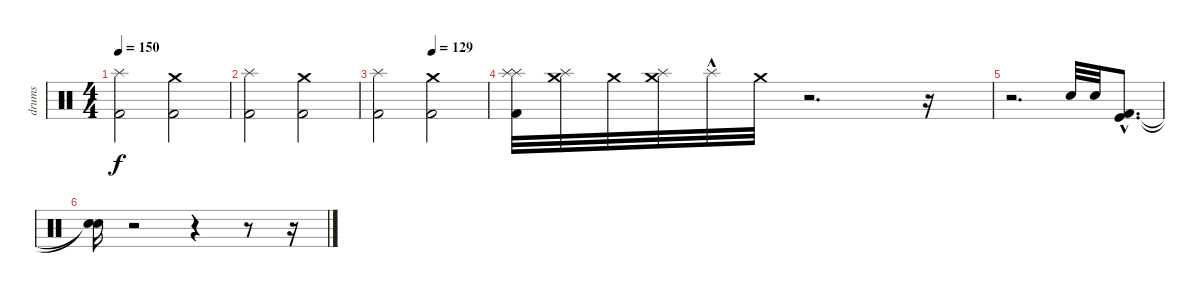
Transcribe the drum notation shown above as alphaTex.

\track ("drums" "drums") {instrument percussion}
\staff {score}
\articulation defaults
\ts (4 4)
\tempo 150
\clef neutral
\ks c
("Kick (hit) 2" "Splash (hit)").2{dy f} ("Kick (hit) 2" "Crash medium (hit)").2 |
("Kick (hit) 2" "Splash (hit)").2 ("Kick (hit) 2" "Crash medium (hit)").2 |
\tempo (129 0.5)
("Kick (hit) 2" "Splash (hit)").2 ("Kick (hit) 2" "Crash medium (hit)").2 |
("Kick (hit) 2" "Splash (hit)" "Splash (hit)").32 ("Crash medium (hit)" "Splash (hit)").32 "Crash medium (hit)".32 ("Splash (hit)" "Crash medium (hit)").32 "Splash (hit)"{hac}.32 "Crash medium (hit)".32 r.2{d} r.16 |
r.2{d} "Electric Snare (hit)".32 "Electric Snare (hit)".32 ("Kick (hit)"{hac} "Kick (hit) 2"{hac}).8{d} |
("Snare (hit)"{t} "Snare (hit)"{t}).16 r.2 r.4 r.8 r.16
